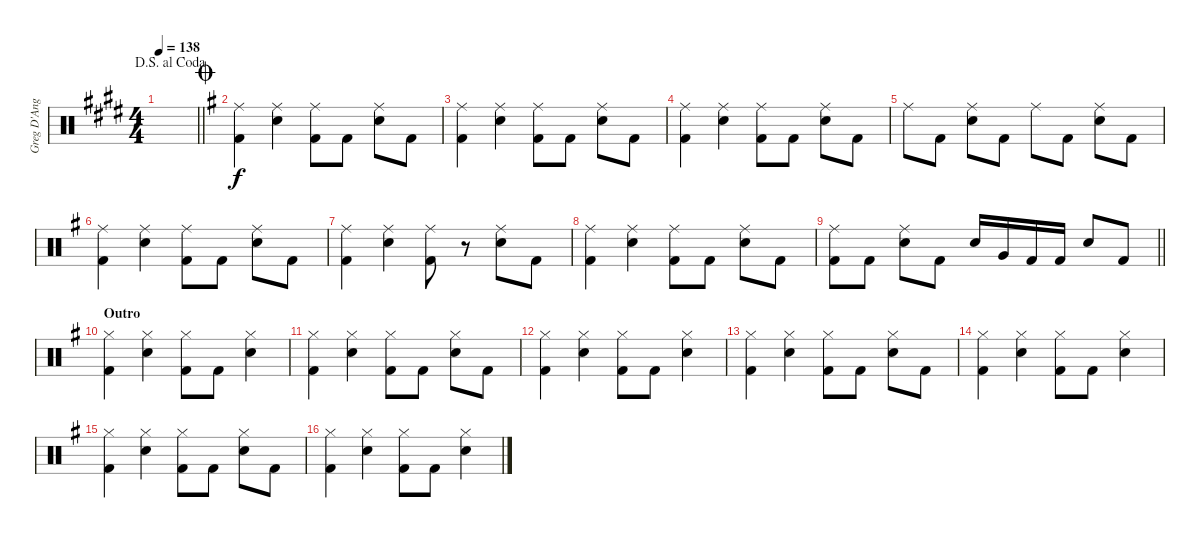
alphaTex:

\track ("Greg D'Angelo" "Greg D'Ang") {instrument percussion}
\staff {score}
\articulation defaults
\ts (4 4)
\jump dalsegnoalcoda
\tempo 138
\clef neutral
\barLineRight lightlight
\ks c#minor
|
\jump coda
\ks g
("Ride (middle)" "Kick (hit) 2").4{dy f} ("Ride (middle)" "Snare (hit) 2").4 ("Ride (middle)" "Kick (hit) 2").8 "Kick (hit) 2".8 ("Ride (middle)" "Snare (hit) 2").8 "Kick (hit) 2".8 |
("Ride (middle)" "Kick (hit) 2").4 ("Ride (middle)" "Snare (hit) 2").4 ("Ride (middle)" "Kick (hit) 2").8 "Kick (hit) 2".8 ("Ride (middle)" "Snare (hit) 2").8 "Kick (hit) 2".8 |
("Ride (middle)" "Kick (hit) 2").4 ("Ride (middle)" "Snare (hit) 2").4 ("Ride (middle)" "Kick (hit) 2").8 "Kick (hit) 2".8 ("Ride (middle)" "Snare (hit) 2").8 "Kick (hit) 2".8 |
"Ride (middle)".8 "Kick (hit) 2".8 ("Ride (middle)" "Snare (hit) 2").8 "Kick (hit) 2".8 "Ride (middle)".8 "Kick (hit) 2".8 ("Ride (middle)" "Snare (hit) 2").8 "Kick (hit) 2".8 |
("Ride (middle)" "Kick (hit) 2").4 ("Ride (middle)" "Snare (hit) 2").4 ("Ride (middle)" "Kick (hit) 2").8 "Kick (hit) 2".8 ("Ride (middle)" "Snare (hit) 2").8 "Kick (hit) 2".8 |
("Ride (middle)" "Kick (hit) 2").4 ("Ride (middle)" "Snare (hit) 2").4 ("Ride (middle)" "Kick (hit) 2").8 r.8 ("Ride (middle)" "Snare (hit) 2").8 "Kick (hit) 2".8 |
("Ride (middle)" "Kick (hit) 2").4 ("Ride (middle)" "Snare (hit) 2").4 ("Ride (middle)" "Kick (hit) 2").8 "Kick (hit) 2".8 ("Ride (middle)" "Snare (hit) 2").8 "Kick (hit) 2".8 |
\barLineRight lightlight
("Ride (middle)" "Kick (hit) 2").8 "Kick (hit) 2".8 ("Ride (middle)" "Snare (hit) 2").8 "Kick (hit) 2".8 "Snare (hit) 2".16 "Very Low Tom (hit)".16 "Kick (hit) 2".16 "Kick (hit) 2".16 "Snare (hit) 2".8 "Kick (hit) 2".8 |
\section ("" "Outro")
("Hi-Hat (closed)" "Kick (hit) 2").4 ("Hi-Hat (closed)" "Snare (hit) 2").4 ("Hi-Hat (closed)" "Kick (hit) 2").8 "Kick (hit) 2".8 ("Hi-Hat (closed)" "Snare (hit) 2").4 |
("Hi-Hat (closed)" "Kick (hit) 2").4 ("Hi-Hat (closed)" "Snare (hit) 2").4 ("Hi-Hat (closed)" "Kick (hit) 2").8 "Kick (hit) 2".8 ("Hi-Hat (closed)" "Snare (hit) 2").8 "Kick (hit) 2".8 |
("Hi-Hat (closed)" "Kick (hit) 2").4 ("Hi-Hat (closed)" "Snare (hit) 2").4 ("Hi-Hat (closed)" "Kick (hit) 2").8 "Kick (hit) 2".8 ("Hi-Hat (closed)" "Snare (hit) 2").4 |
("Hi-Hat (closed)" "Kick (hit) 2").4 ("Hi-Hat (closed)" "Snare (hit) 2").4 ("Hi-Hat (closed)" "Kick (hit) 2").8 "Kick (hit) 2".8 ("Hi-Hat (closed)" "Snare (hit) 2").8 "Kick (hit) 2".8 |
("Hi-Hat (closed)" "Kick (hit) 2").4 ("Hi-Hat (closed)" "Snare (hit) 2").4 ("Hi-Hat (closed)" "Kick (hit) 2").8 "Kick (hit) 2".8 ("Hi-Hat (closed)" "Snare (hit) 2").4 |
("Hi-Hat (closed)" "Kick (hit) 2").4 ("Hi-Hat (closed)" "Snare (hit) 2").4 ("Hi-Hat (closed)" "Kick (hit) 2").8 "Kick (hit) 2".8 ("Hi-Hat (closed)" "Snare (hit) 2").8 "Kick (hit) 2".8 |
("Hi-Hat (closed)" "Kick (hit) 2").4 ("Hi-Hat (closed)" "Snare (hit) 2").4 ("Hi-Hat (closed)" "Kick (hit) 2").8 "Kick (hit) 2".8 ("Hi-Hat (closed)" "Snare (hit) 2").4
